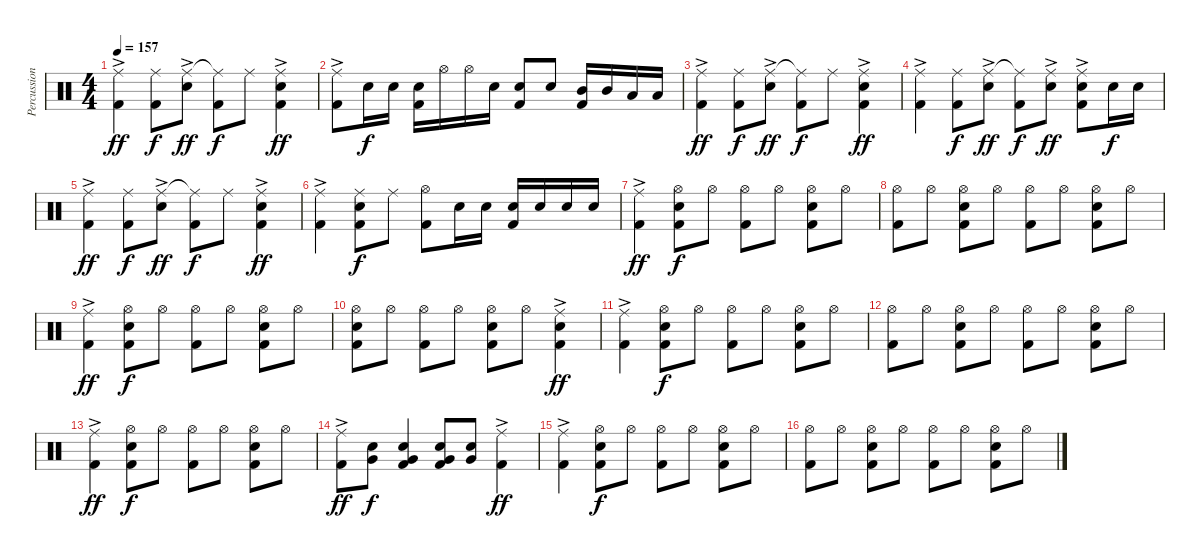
\track ("Percussion" "Percussion") {instrument percussion}
\staff {score}
\articulation defaults
\ts (4 4)
\tempo 157
\clef neutral
\ks c
("Ride (middle)"{ac} "Kick (hit) 2").4{dy ff} ("Ride (middle)" "Kick (hit) 2").8{dy f} ("Ride (middle)"{ac} "Snare (hit) 2").8{dy ff} ("Ride (middle)"{t} "Kick (hit) 2").8{dy f} "Ride (middle)".8 ("Ride (middle)"{ac} "Snare (hit) 2" "Kick (hit) 2").4{dy ff} |
("Ride (middle)"{ac} "Kick (hit) 2").8 "Snare (hit) 2".16{dy f} "Snare (hit) 2".16 ("Snare (hit) 2" "Kick (hit) 2").16 "Hi-Hat (open)".16 "Hi-Hat (open)".16 "Snare (hit) 2".16 ("Snare (hit) 2" "Kick (hit) 2").8 "Snare (hit) 2".8 ("Mid Tom (hit)" "Kick (hit) 2").16 "Mid Tom (hit)".16 "Low Tom (hit)".16 "Low Tom (hit)".16 |
("Ride (middle)"{ac} "Kick (hit) 2").4{dy ff} ("Ride (middle)" "Kick (hit) 2").8{dy f} ("Ride (middle)"{ac} "Snare (hit) 2").8{dy ff} ("Ride (middle)"{t} "Kick (hit) 2").8{dy f} "Ride (middle)".8 ("Ride (middle)"{ac} "Snare (hit) 2" "Kick (hit) 2").4{dy ff} |
("Ride (middle)"{ac} "Kick (hit) 2").4 ("Ride (middle)" "Kick (hit) 2").8{dy f} ("Ride (middle)"{ac} "Snare (hit) 2").8{dy ff} ("Ride (middle)"{t} "Kick (hit) 2").8{dy f} ("Ride (middle)"{ac} "Snare (hit) 2").8{dy ff} ("Ride (middle)"{ac} "Snare (hit) 2" "Kick (hit) 2").8 "Snare (hit) 2".16{dy f} "Snare (hit) 2".16 |
("Ride (middle)"{ac} "Kick (hit) 2").4{dy ff} ("Ride (middle)" "Kick (hit) 2").8{dy f} ("Ride (middle)"{ac} "Snare (hit) 2").8{dy ff} ("Ride (middle)"{t} "Kick (hit) 2").8{dy f} "Ride (middle)".8 ("Ride (middle)"{ac} "Snare (hit) 2" "Kick (hit) 2").4{dy ff} |
("Ride (middle)"{ac} "Kick (hit) 2").4 ("Ride (middle)" "Snare (hit) 2" "Kick (hit) 2").8{dy f} "Ride (middle)".8 ("Hi-Hat (open)" "Kick (hit) 2").8 "Snare (hit) 2".16 "Snare (hit) 2".16 ("Snare (hit) 2" "Kick (hit) 2").16 "Snare (hit) 2".16 "Snare (hit) 2".16 "Snare (hit) 2".16 |
("Ride (middle)"{ac} "Kick (hit) 2").4{dy ff} ("Hi-Hat (open)" "Snare (hit) 2" "Kick (hit) 2").8{dy f} "Hi-Hat (open)".8 ("Hi-Hat (open)" "Kick (hit) 2").8 "Hi-Hat (open)".8 ("Hi-Hat (open)" "Snare (hit) 2" "Kick (hit) 2").8 "Hi-Hat (open)".8 |
("Hi-Hat (open)" "Kick (hit) 2").8 "Hi-Hat (open)".8 ("Hi-Hat (open)" "Snare (hit) 2" "Kick (hit) 2").8 "Hi-Hat (open)".8 ("Hi-Hat (open)" "Kick (hit) 2").8 "Hi-Hat (open)".8 ("Hi-Hat (open)" "Snare (hit) 2" "Kick (hit) 2").8 "Hi-Hat (open)".8 |
("Ride (middle)"{ac} "Kick (hit) 2").4{dy ff} ("Hi-Hat (open)" "Snare (hit) 2" "Kick (hit) 2").8{dy f} "Hi-Hat (open)".8 ("Hi-Hat (open)" "Kick (hit) 2").8 "Hi-Hat (open)".8 ("Hi-Hat (open)" "Snare (hit) 2" "Kick (hit) 2").8 "Hi-Hat (open)".8 |
("Hi-Hat (open)" "Snare (hit) 2" "Kick (hit) 2").8 "Hi-Hat (open)".8 ("Hi-Hat (open)" "Kick (hit) 2").8 "Hi-Hat (open)".8 ("Hi-Hat (open)" "Snare (hit) 2" "Kick (hit) 2").8 "Hi-Hat (open)".8 ("Ride (middle)"{ac} "Snare (hit) 2" "Kick (hit) 2").4{dy ff} |
("Ride (middle)"{ac} "Kick (hit) 2").4 ("Hi-Hat (open)" "Snare (hit) 2" "Kick (hit) 2").8{dy f} "Hi-Hat (open)".8 ("Hi-Hat (open)" "Kick (hit) 2").8 "Hi-Hat (open)".8 ("Hi-Hat (open)" "Snare (hit) 2" "Kick (hit) 2").8 "Hi-Hat (open)".8 |
("Hi-Hat (open)" "Kick (hit) 2").8 "Hi-Hat (open)".8 ("Hi-Hat (open)" "Snare (hit) 2" "Kick (hit) 2").8 "Hi-Hat (open)".8 ("Hi-Hat (open)" "Kick (hit) 2").8 "Hi-Hat (open)".8 ("Hi-Hat (open)" "Snare (hit) 2" "Kick (hit) 2").8 "Hi-Hat (open)".8 |
("Ride (middle)"{ac} "Kick (hit) 2").4{dy ff} ("Hi-Hat (open)" "Snare (hit) 2" "Kick (hit) 2").8{dy f} "Hi-Hat (open)".8 ("Hi-Hat (open)" "Kick (hit) 2").8 "Hi-Hat (open)".8 ("Hi-Hat (open)" "Snare (hit) 2" "Kick (hit) 2").8 "Hi-Hat (open)".8 |
("Ride (middle)"{ac} "Kick (hit) 2").8{dy ff} ("Snare (hit) 2" "Very Low Tom (hit)").8{dy f} ("Snare (hit) 2" "Very Low Tom (hit)" "Kick (hit) 2").4 ("Snare (hit) 2" "Very Low Tom (hit)" "Kick (hit) 2").8 ("Snare (hit) 2" "Very Low Tom (hit)").8 ("Ride (middle)"{ac} "Kick (hit) 2").4{dy ff} |
("Ride (middle)"{ac} "Kick (hit) 2").4 ("Hi-Hat (open)" "Snare (hit) 2" "Kick (hit) 2").8{dy f} "Hi-Hat (open)".8 ("Hi-Hat (open)" "Kick (hit) 2").8 "Hi-Hat (open)".8 ("Hi-Hat (open)" "Snare (hit) 2" "Kick (hit) 2").8 "Hi-Hat (open)".8 |
("Hi-Hat (open)" "Kick (hit) 2").8 "Hi-Hat (open)".8 ("Hi-Hat (open)" "Snare (hit) 2" "Kick (hit) 2").8 "Hi-Hat (open)".8 ("Hi-Hat (open)" "Kick (hit) 2").8 "Hi-Hat (open)".8 ("Hi-Hat (open)" "Snare (hit) 2" "Kick (hit) 2").8 "Hi-Hat (open)".8
